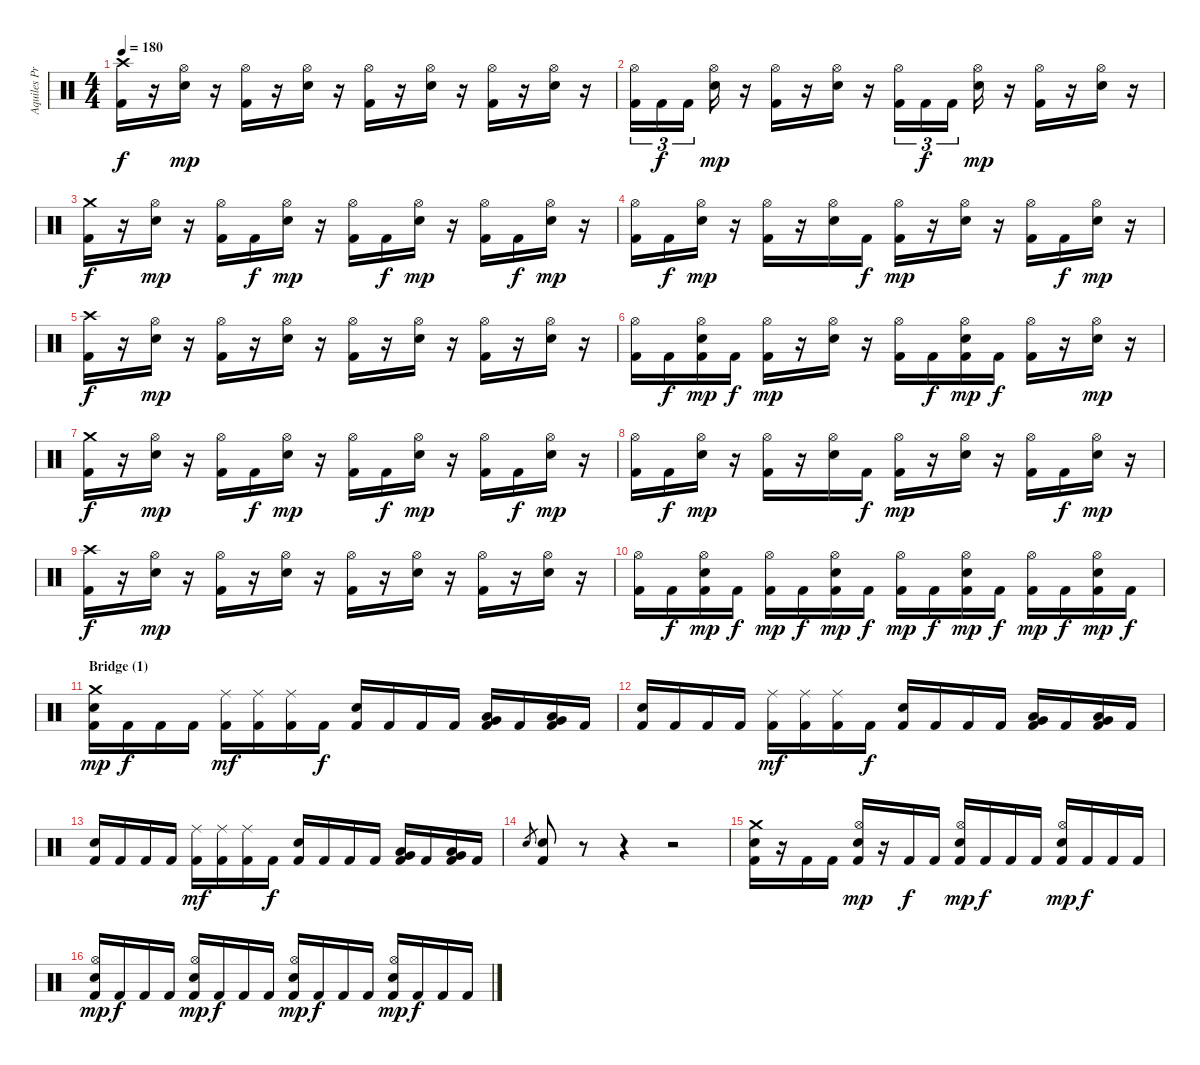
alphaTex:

\track ("Aquiles Priester" "Aquiles Pr") {instrument percussion}
\staff {score}
\articulation defaults
\ts (4 4)
\tempo 180
\clef neutral
\ks c
("Crash high (hit)" "Kick (hit) 2").16{dy f} r.16 ("Hi-Hat (open)" "Snare (hit) 2").16{dy mp} r.16 ("Hi-Hat (open)" "Kick (hit) 2").16 r.16 ("Hi-Hat (open)" "Snare (hit) 2").16 r.16 ("Hi-Hat (open)" "Kick (hit) 2").16 r.16 ("Hi-Hat (open)" "Snare (hit) 2").16 r.16 ("Hi-Hat (open)" "Kick (hit) 2").16 r.16 ("Hi-Hat (open)" "Snare (hit) 2").16 r.16 |
("Hi-Hat (open)" "Kick (hit) 2").16{tu (3 2)} "Kick (hit) 2".16{tu (3 2) dy f} "Kick (hit) 2".16{tu (3 2)} ("Hi-Hat (open)" "Snare (hit) 2").16{dy mp} r.16 ("Hi-Hat (open)" "Kick (hit) 2").16 r.16 ("Hi-Hat (open)" "Snare (hit) 2").16 r.16 ("Hi-Hat (open)" "Kick (hit) 2").16{tu (3 2)} "Kick (hit) 2".16{tu (3 2) dy f} "Kick (hit) 2".16{tu (3 2)} ("Hi-Hat (open)" "Snare (hit) 2").16{dy mp} r.16 ("Hi-Hat (open)" "Kick (hit) 2").16 r.16 ("Hi-Hat (open)" "Snare (hit) 2").16 r.16 |
("Crash medium (hit)" "Kick (hit) 2").16{dy f} r.16 ("Hi-Hat (open)" "Snare (hit) 2").16{dy mp} r.16 ("Hi-Hat (open)" "Kick (hit) 2").16 "Kick (hit) 2".16{dy f} ("Hi-Hat (open)" "Snare (hit) 2").16{dy mp} r.16 ("Hi-Hat (open)" "Kick (hit) 2").16 "Kick (hit) 2".16{dy f} ("Hi-Hat (open)" "Snare (hit) 2").16{dy mp} r.16 ("Hi-Hat (open)" "Kick (hit) 2").16 "Kick (hit) 2".16{dy f} ("Hi-Hat (open)" "Snare (hit) 2").16{dy mp} r.16 |
("Hi-Hat (open)" "Kick (hit) 2").16 "Kick (hit) 2".16{dy f} ("Hi-Hat (open)" "Snare (hit) 2").16{dy mp} r.16 ("Hi-Hat (open)" "Kick (hit) 2").16 r.16 ("Hi-Hat (open)" "Snare (hit) 2").16 "Kick (hit) 2".16{dy f} ("Hi-Hat (open)" "Kick (hit) 2").16{dy mp} r.16 ("Hi-Hat (open)" "Snare (hit) 2").16 r.16 ("Hi-Hat (open)" "Kick (hit) 2").16 "Kick (hit) 2".16{dy f} ("Hi-Hat (open)" "Snare (hit) 2").16{dy mp} r.16 |
("Crash high (hit)" "Kick (hit) 2").16{dy f} r.16 ("Hi-Hat (open)" "Snare (hit) 2").16{dy mp} r.16 ("Hi-Hat (open)" "Kick (hit) 2").16 r.16 ("Hi-Hat (open)" "Snare (hit) 2").16 r.16 ("Hi-Hat (open)" "Kick (hit) 2").16 r.16 ("Hi-Hat (open)" "Snare (hit) 2").16 r.16 ("Hi-Hat (open)" "Kick (hit) 2").16 r.16 ("Hi-Hat (open)" "Snare (hit) 2").16 r.16 |
("Hi-Hat (open)" "Kick (hit) 2").16 "Kick (hit) 2".16{dy f} ("Hi-Hat (open)" "Snare (hit) 2" "Kick (hit) 2").16{dy mp} "Kick (hit) 2".16{dy f} ("Hi-Hat (open)" "Kick (hit) 2").16{dy mp} r.16 ("Hi-Hat (open)" "Snare (hit) 2").16 r.16 ("Hi-Hat (open)" "Kick (hit) 2").16 "Kick (hit) 2".16{dy f} ("Hi-Hat (open)" "Snare (hit) 2" "Kick (hit) 2").16{dy mp} "Kick (hit) 2".16{dy f} ("Hi-Hat (open)" "Kick (hit) 2").16 r.16 ("Hi-Hat (open)" "Snare (hit) 2").16{dy mp} r.16 |
("Crash medium (hit)" "Kick (hit) 2").16{dy f} r.16 ("Hi-Hat (open)" "Snare (hit) 2").16{dy mp} r.16 ("Hi-Hat (open)" "Kick (hit) 2").16 "Kick (hit) 2".16{dy f} ("Hi-Hat (open)" "Snare (hit) 2").16{dy mp} r.16 ("Hi-Hat (open)" "Kick (hit) 2").16 "Kick (hit) 2".16{dy f} ("Hi-Hat (open)" "Snare (hit) 2").16{dy mp} r.16 ("Hi-Hat (open)" "Kick (hit) 2").16 "Kick (hit) 2".16{dy f} ("Hi-Hat (open)" "Snare (hit) 2").16{dy mp} r.16 |
("Hi-Hat (open)" "Kick (hit) 2").16 "Kick (hit) 2".16{dy f} ("Hi-Hat (open)" "Snare (hit) 2").16{dy mp} r.16 ("Hi-Hat (open)" "Kick (hit) 2").16 r.16 ("Hi-Hat (open)" "Snare (hit) 2").16 "Kick (hit) 2".16{dy f} ("Hi-Hat (open)" "Kick (hit) 2").16{dy mp} r.16 ("Hi-Hat (open)" "Snare (hit) 2").16 r.16 ("Hi-Hat (open)" "Kick (hit) 2").16 "Kick (hit) 2".16{dy f} ("Hi-Hat (open)" "Snare (hit) 2").16{dy mp} r.16 |
("Crash high (hit)" "Kick (hit) 2").16{dy f} r.16 ("Hi-Hat (open)" "Snare (hit) 2").16{dy mp} r.16 ("Hi-Hat (open)" "Kick (hit) 2").16 r.16 ("Hi-Hat (open)" "Snare (hit) 2").16 r.16 ("Hi-Hat (open)" "Kick (hit) 2").16 r.16 ("Hi-Hat (open)" "Snare (hit) 2").16 r.16 ("Hi-Hat (open)" "Kick (hit) 2").16 r.16 ("Hi-Hat (open)" "Snare (hit) 2").16 r.16 |
("Hi-Hat (open)" "Kick (hit) 2").16 "Kick (hit) 2".16{dy f} ("Hi-Hat (open)" "Snare (hit) 2" "Kick (hit) 2").16{dy mp} "Kick (hit) 2".16{dy f} ("Hi-Hat (open)" "Kick (hit) 2").16{dy mp} "Kick (hit) 2".16{dy f} ("Hi-Hat (open)" "Snare (hit) 2" "Kick (hit) 2").16{dy mp} "Kick (hit) 2".16{dy f} ("Hi-Hat (open)" "Kick (hit) 2").16{dy mp} "Kick (hit) 2".16{dy f} ("Hi-Hat (open)" "Snare (hit) 2" "Kick (hit) 2").16{dy mp} "Kick (hit) 2".16{dy f} ("Hi-Hat (open)" "Kick (hit) 2").16{dy mp} "Kick (hit) 2".16{dy f} ("Hi-Hat (open)" "Snare (hit) 2" "Kick (hit) 2").16{dy mp} "Kick (hit) 2".16{dy f} |
\section ("" "Bridge (1)")
("Crash medium (hit)" "Snare (hit) 2" "Kick (hit) 2").16{dy mp} "Kick (hit) 2".16{dy f} "Kick (hit) 2".16 "Kick (hit) 2".16 ("Ride (middle)" "Kick (hit) 2").16{dy mf} ("Ride (middle)" "Kick (hit) 2").16 ("Ride (middle)" "Kick (hit) 2").16 "Kick (hit) 2".16{dy f} ("Snare (hit) 2" "Kick (hit) 2").16 "Kick (hit) 2".16 "Kick (hit) 2".16 "Kick (hit) 2".16 ("Low Tom (hit)" "Very Low Tom (hit)" "Kick (hit) 2").16 "Kick (hit) 2".16 ("Low Tom (hit)" "Very Low Tom (hit)" "Kick (hit) 2").16 "Kick (hit) 2".16 |
("Snare (hit) 2" "Kick (hit) 2").16 "Kick (hit) 2".16 "Kick (hit) 2".16 "Kick (hit) 2".16 ("Ride (middle)" "Kick (hit) 2").16{dy mf} ("Ride (middle)" "Kick (hit) 2").16 ("Ride (middle)" "Kick (hit) 2").16 "Kick (hit) 2".16{dy f} ("Snare (hit) 2" "Kick (hit) 2").16 "Kick (hit) 2".16 "Kick (hit) 2".16 "Kick (hit) 2".16 ("Low Tom (hit)" "Very Low Tom (hit)" "Kick (hit) 2").16 "Kick (hit) 2".16 ("Low Tom (hit)" "Very Low Tom (hit)" "Kick (hit) 2").16 "Kick (hit) 2".16 |
("Snare (hit) 2" "Kick (hit) 2").16 "Kick (hit) 2".16 "Kick (hit) 2".16 "Kick (hit) 2".16 ("Ride (middle)" "Kick (hit) 2").16{dy mf} ("Ride (middle)" "Kick (hit) 2").16 ("Ride (middle)" "Kick (hit) 2").16 "Kick (hit) 2".16{dy f} ("Snare (hit) 2" "Kick (hit) 2").16 "Kick (hit) 2".16 "Kick (hit) 2".16 "Kick (hit) 2".16 ("Low Tom (hit)" "Very Low Tom (hit)" "Kick (hit) 2").16 "Kick (hit) 2".16 ("Low Tom (hit)" "Very Low Tom (hit)" "Kick (hit) 2").16 "Kick (hit) 2".16 |
"Snare (hit) 2".8{gr} ("Snare (hit) 2" "Kick (hit) 2").8 r.8 r.4 r.2 |
("Crash medium (hit)" "Snare (hit) 2" "Kick (hit) 2").16 r.16 "Kick (hit) 2".16 "Kick (hit) 2".16 ("Hi-Hat (open)" "Snare (hit) 2" "Kick (hit) 2").16{dy mp} r.16 "Kick (hit) 2".16{dy f} "Kick (hit) 2".16 ("Hi-Hat (open)" "Snare (hit) 2" "Kick (hit) 2").16{dy mp} "Kick (hit) 2".16{dy f} "Kick (hit) 2".16 "Kick (hit) 2".16 ("Hi-Hat (open)" "Snare (hit) 2" "Kick (hit) 2").16{dy mp} "Kick (hit) 2".16{dy f} "Kick (hit) 2".16 "Kick (hit) 2".16 |
("Hi-Hat (open)" "Snare (hit) 2" "Kick (hit) 2").16{dy mp} "Kick (hit) 2".16{dy f} "Kick (hit) 2".16 "Kick (hit) 2".16 ("Hi-Hat (open)" "Snare (hit) 2" "Kick (hit) 2").16{dy mp} "Kick (hit) 2".16{dy f} "Kick (hit) 2".16 "Kick (hit) 2".16 ("Hi-Hat (open)" "Snare (hit) 2" "Kick (hit) 2").16{dy mp} "Kick (hit) 2".16{dy f} "Kick (hit) 2".16 "Kick (hit) 2".16 ("Hi-Hat (open)" "Snare (hit) 2" "Kick (hit) 2").16{dy mp} "Kick (hit) 2".16{dy f} "Kick (hit) 2".16 "Kick (hit) 2".16
